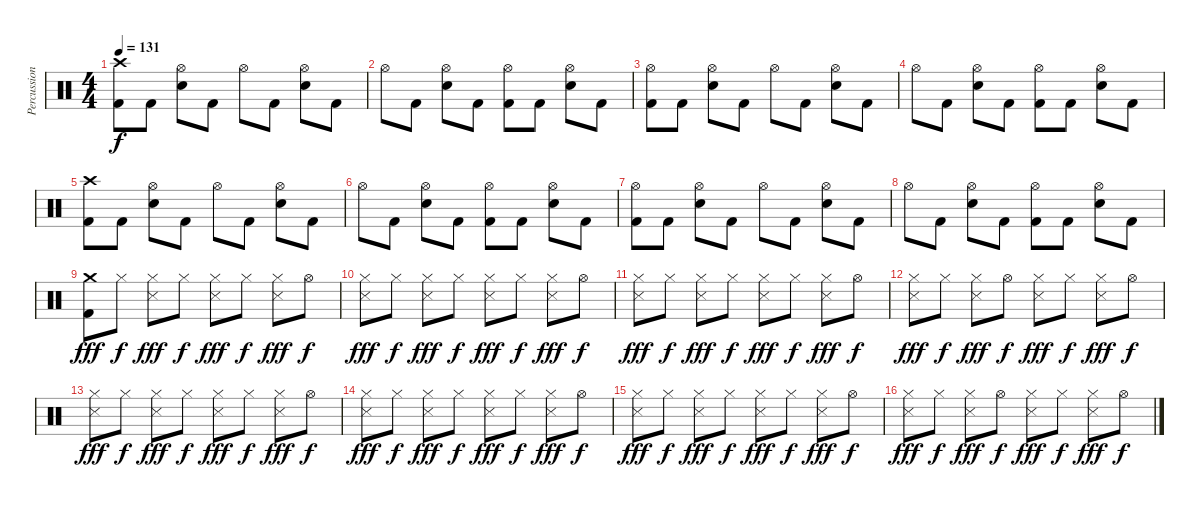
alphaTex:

\track ("Percussion" "Percussion") {instrument percussion}
\staff {score}
\articulation defaults
\ts (4 4)
\tempo 131
\clef neutral
\ks c
("Crash high (hit)" "Kick (hit) 2").8{dy f} "Kick (hit) 2".8 ("Hi-Hat (open)" "Electric Snare (hit)").8 "Kick (hit) 2".8 "Hi-Hat (open)".8 "Kick (hit) 2".8 ("Hi-Hat (open)" "Electric Snare (hit)").8 "Kick (hit) 2".8 |
"Hi-Hat (open)".8 "Kick (hit) 2".8 ("Hi-Hat (open)" "Electric Snare (hit)").8 "Kick (hit) 2".8 ("Hi-Hat (open)" "Kick (hit) 2").8 "Kick (hit) 2".8 ("Hi-Hat (open)" "Electric Snare (hit)").8 "Kick (hit) 2".8 |
("Hi-Hat (open)" "Kick (hit) 2").8 "Kick (hit) 2".8 ("Hi-Hat (open)" "Electric Snare (hit)").8 "Kick (hit) 2".8 "Hi-Hat (open)".8 "Kick (hit) 2".8 ("Hi-Hat (open)" "Electric Snare (hit)").8 "Kick (hit) 2".8 |
"Hi-Hat (open)".8 "Kick (hit) 2".8 ("Hi-Hat (open)" "Electric Snare (hit)").8 "Kick (hit) 2".8 ("Hi-Hat (open)" "Kick (hit) 2").8 "Kick (hit) 2".8 ("Hi-Hat (open)" "Electric Snare (hit)").8 "Kick (hit) 2".8 |
("Crash high (hit)" "Kick (hit) 2").8 "Kick (hit) 2".8 ("Hi-Hat (open)" "Electric Snare (hit)").8 "Kick (hit) 2".8 "Hi-Hat (open)".8 "Kick (hit) 2".8 ("Hi-Hat (open)" "Electric Snare (hit)").8 "Kick (hit) 2".8 |
"Hi-Hat (open)".8 "Kick (hit) 2".8 ("Hi-Hat (open)" "Electric Snare (hit)").8 "Kick (hit) 2".8 ("Hi-Hat (open)" "Kick (hit) 2").8 "Kick (hit) 2".8 ("Hi-Hat (open)" "Electric Snare (hit)").8 "Kick (hit) 2".8 |
("Hi-Hat (open)" "Kick (hit) 2").8 "Kick (hit) 2".8 ("Hi-Hat (open)" "Electric Snare (hit)").8 "Kick (hit) 2".8 "Hi-Hat (open)".8 "Kick (hit) 2".8 ("Hi-Hat (open)" "Electric Snare (hit)").8 "Kick (hit) 2".8 |
"Hi-Hat (open)".8 "Kick (hit) 2".8 ("Hi-Hat (open)" "Electric Snare (hit)").8 "Kick (hit) 2".8 ("Hi-Hat (open)" "Kick (hit) 2").8 "Kick (hit) 2".8 ("Hi-Hat (open)" "Electric Snare (hit)").8 "Kick (hit) 2".8 |
("Crash medium (hit)" "Kick (hit) 2").8{dy fff} "Hi-Hat (closed)".8{dy f} ("Hi-Hat (closed)" "Snare (side stick) 3").8{dy fff} "Hi-Hat (closed)".8{dy f} ("Hi-Hat (closed)" "Snare (side stick) 3").8{dy fff} "Hi-Hat (closed)".8{dy f} ("Hi-Hat (closed)" "Snare (side stick) 3").8{dy fff} "Hi-Hat (open)".8{dy f} |
("Hi-Hat (closed)" "Snare (side stick) 3").8{dy fff} "Hi-Hat (closed)".8{dy f} ("Hi-Hat (closed)" "Snare (side stick) 3").8{dy fff} "Hi-Hat (closed)".8{dy f} ("Hi-Hat (closed)" "Snare (side stick) 3").8{dy fff} "Hi-Hat (closed)".8{dy f} ("Hi-Hat (closed)" "Snare (side stick) 3").8{dy fff} "Hi-Hat (open)".8{dy f} |
("Hi-Hat (closed)" "Snare (side stick) 3").8{dy fff} "Hi-Hat (closed)".8{dy f} ("Hi-Hat (closed)" "Snare (side stick) 3").8{dy fff} "Hi-Hat (closed)".8{dy f} ("Hi-Hat (closed)" "Snare (side stick) 3").8{dy fff} "Hi-Hat (closed)".8{dy f} ("Hi-Hat (closed)" "Snare (side stick) 3").8{dy fff} "Hi-Hat (open)".8{dy f} |
("Hi-Hat (closed)" "Snare (side stick) 3").8{dy fff} "Hi-Hat (closed)".8{dy f} ("Hi-Hat (closed)" "Snare (side stick) 3").8{dy fff} "Hi-Hat (open)".8{dy f} ("Hi-Hat (closed)" "Snare (side stick) 3").8{dy fff} "Hi-Hat (closed)".8{dy f} ("Hi-Hat (closed)" "Snare (side stick) 3").8{dy fff} "Hi-Hat (open)".8{dy f} |
("Hi-Hat (closed)" "Snare (side stick) 3").8{dy fff} "Hi-Hat (closed)".8{dy f} ("Hi-Hat (closed)" "Snare (side stick) 3").8{dy fff} "Hi-Hat (closed)".8{dy f} ("Hi-Hat (closed)" "Snare (side stick) 3").8{dy fff} "Hi-Hat (closed)".8{dy f} ("Hi-Hat (closed)" "Snare (side stick) 3").8{dy fff} "Hi-Hat (open)".8{dy f} |
("Hi-Hat (closed)" "Snare (side stick) 3").8{dy fff} "Hi-Hat (closed)".8{dy f} ("Hi-Hat (closed)" "Snare (side stick) 3").8{dy fff} "Hi-Hat (closed)".8{dy f} ("Hi-Hat (closed)" "Snare (side stick) 3").8{dy fff} "Hi-Hat (closed)".8{dy f} ("Hi-Hat (closed)" "Snare (side stick) 3").8{dy fff} "Hi-Hat (open)".8{dy f} |
("Hi-Hat (closed)" "Snare (side stick) 3").8{dy fff} "Hi-Hat (closed)".8{dy f} ("Hi-Hat (closed)" "Snare (side stick) 3").8{dy fff} "Hi-Hat (closed)".8{dy f} ("Hi-Hat (closed)" "Snare (side stick) 3").8{dy fff} "Hi-Hat (closed)".8{dy f} ("Hi-Hat (closed)" "Snare (side stick) 3").8{dy fff} "Hi-Hat (open)".8{dy f} |
("Hi-Hat (closed)" "Snare (side stick) 3").8{dy fff} "Hi-Hat (closed)".8{dy f} ("Hi-Hat (closed)" "Snare (side stick) 3").8{dy fff} "Hi-Hat (open)".8{dy f} ("Hi-Hat (closed)" "Snare (side stick) 3").8{dy fff} "Hi-Hat (closed)".8{dy f} ("Hi-Hat (closed)" "Snare (side stick) 3").8{dy fff} "Hi-Hat (open)".8{dy f}
